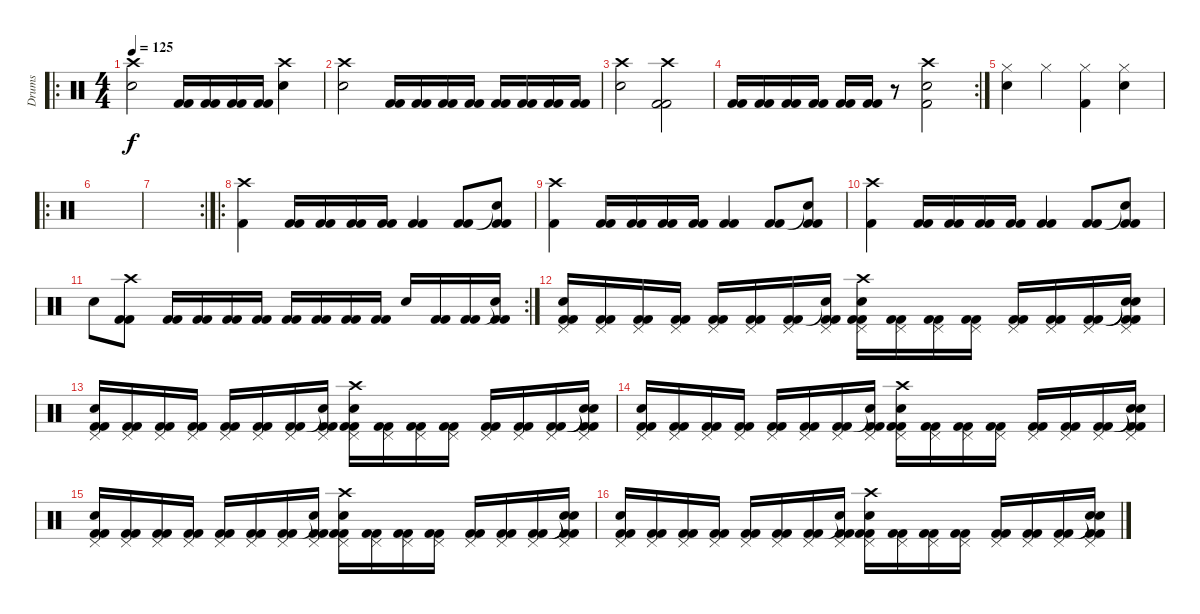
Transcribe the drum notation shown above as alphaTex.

\track ("Drums" "Drums") {instrument percussion}
\staff {score}
\articulation defaults
\ro
\ts (4 4)
\tempo 125
\clef neutral
\ks c
("Crash high (hit)" "Snare (hit) 2").2{dy f} ("Kick (hit) 2" "Kick (hit) 2").16 ("Kick (hit) 2" "Kick (hit) 2").16 ("Kick (hit) 2" "Kick (hit) 2").16 ("Kick (hit) 2" "Kick (hit) 2").16 ("Crash high (hit)" "Snare (hit) 2").4 |
("Crash high (hit)" "Snare (hit) 2").2 ("Kick (hit) 2" "Kick (hit) 2").16 ("Kick (hit) 2" "Kick (hit) 2").16 ("Kick (hit) 2" "Kick (hit) 2").16 ("Kick (hit) 2" "Kick (hit) 2").16 ("Kick (hit) 2" "Kick (hit) 2").16 ("Kick (hit) 2" "Kick (hit) 2").16 ("Kick (hit) 2" "Kick (hit) 2").16 ("Kick (hit) 2" "Kick (hit) 2").16 |
("Crash high (hit)" "Snare (hit) 2").2 ("Crash high (hit)" "Kick (hit) 2" "Kick (hit) 2").2 |
\rc 2
("Kick (hit) 2" "Kick (hit) 2").16 ("Kick (hit) 2" "Kick (hit) 2").16 ("Kick (hit) 2" "Kick (hit) 2").16 ("Kick (hit) 2" "Kick (hit) 2").16 ("Kick (hit) 2" "Kick (hit) 2").16 ("Kick (hit) 2" "Kick (hit) 2").16 r.8 ("Crash high (hit)" "Snare (hit) 2" "Kick (hit) 2").2 |
("Hi-Hat (closed)" "Snare (hit) 2").4 "Hi-Hat (closed)".4 ("Hi-Hat (closed)" "Kick (hit) 2").4 ("Hi-Hat (closed)" "Snare (hit) 2").4 |
\ro
|
\rc 2
|
\ro
("Crash high (hit)" "Kick (hit) 2").4 ("Kick (hit) 2" "Kick (hit) 2").16 ("Kick (hit) 2" "Kick (hit) 2").16 ("Kick (hit) 2" "Kick (hit) 2").16 ("Kick (hit) 2" "Kick (hit) 2").16 ("Kick (hit) 2" "Kick (hit) 2").4 ("Kick (hit) 2" "Kick (hit) 2").8 ("Snare (hit)"{t} "Kick (hit) 2" "Kick (hit) 2").8 |
("Crash high (hit)" "Kick (hit) 2").4 ("Kick (hit) 2" "Kick (hit) 2").16 ("Kick (hit) 2" "Kick (hit) 2").16 ("Kick (hit) 2" "Kick (hit) 2").16 ("Kick (hit) 2" "Kick (hit) 2").16 ("Kick (hit) 2" "Kick (hit) 2").4 ("Kick (hit) 2" "Kick (hit) 2").8 ("Snare (hit)"{t} "Kick (hit) 2" "Kick (hit) 2").8 |
("Crash high (hit)" "Kick (hit) 2").4 ("Kick (hit) 2" "Kick (hit) 2").16 ("Kick (hit) 2" "Kick (hit) 2").16 ("Kick (hit) 2" "Kick (hit) 2").16 ("Kick (hit) 2" "Kick (hit) 2").16 ("Kick (hit) 2" "Kick (hit) 2").4 ("Kick (hit) 2" "Kick (hit) 2").8 ("Snare (hit)"{t} "Kick (hit) 2" "Kick (hit) 2").8 |
\rc 2 "Snare (hit) 2".8
("Crash high (hit)" "Kick (hit) 2" "Kick (hit) 2").8 ("Kick (hit) 2" "Kick (hit) 2").16 ("Kick (hit) 2" "Kick (hit) 2").16 ("Kick (hit) 2" "Kick (hit) 2").16 ("Kick (hit) 2" "Kick (hit) 2").16 ("Kick (hit) 2" "Kick (hit) 2").16 ("Kick (hit) 2" "Kick (hit) 2").16 ("Kick (hit) 2" "Kick (hit) 2").16 ("Kick (hit) 2" "Kick (hit) 2").16 "Snare (hit) 2".16 ("Kick (hit) 2" "Kick (hit) 2").16 ("Kick (hit) 2" "Kick (hit) 2").16 ("Snare (hit)"{t} "Kick (hit) 2" "Kick (hit) 2").16 |
("Pedal Hi-Hat (hit)" "Snare (hit) 2" "Kick (hit) 2" "Kick (hit) 2").16 ("Pedal Hi-Hat (hit)" "Kick (hit) 2" "Kick (hit) 2").16 ("Pedal Hi-Hat (hit)" "Kick (hit) 2" "Kick (hit) 2").16 ("Pedal Hi-Hat (hit)" "Kick (hit) 2" "Kick (hit) 2").16 ("Pedal Hi-Hat (hit)" "Kick (hit) 2" "Kick (hit) 2").16 ("Pedal Hi-Hat (hit)" "Kick (hit) 2" "Kick (hit) 2").16 ("Pedal Hi-Hat (hit)" "Kick (hit) 2" "Kick (hit) 2").16 ("Pedal Hi-Hat (hit)" "Snare (hit)"{t} "Kick (hit) 2" "Kick (hit) 2").16 ("Pedal Hi-Hat (hit)" "Crash high (hit)" "Snare (hit) 2" "Kick (hit) 2" "Kick (hit) 2").16 ("Pedal Hi-Hat (hit)" "Kick (hit) 2" "Kick (hit) 2").16 ("Pedal Hi-Hat (hit)" "Kick (hit) 2" "Kick (hit) 2").16 ("Pedal Hi-Hat (hit)" "Kick (hit) 2" "Kick (hit) 2").16 ("Pedal Hi-Hat (hit)" "Kick (hit) 2" "Kick (hit) 2").16 ("Pedal Hi-Hat (hit)" "Kick (hit) 2" "Kick (hit) 2").16 ("Pedal Hi-Hat (hit)" "Kick (hit) 2" "Kick (hit) 2").16 ("Pedal Hi-Hat (hit)" "Snare (hit)"{t} "Snare (hit)"{t} "Kick (hit) 2" "Kick (hit) 2").16 |
("Pedal Hi-Hat (hit)" "Snare (hit) 2" "Kick (hit) 2" "Kick (hit) 2").16 ("Pedal Hi-Hat (hit)" "Kick (hit) 2" "Kick (hit) 2").16 ("Pedal Hi-Hat (hit)" "Kick (hit) 2" "Kick (hit) 2").16 ("Pedal Hi-Hat (hit)" "Kick (hit) 2" "Kick (hit) 2").16 ("Pedal Hi-Hat (hit)" "Kick (hit) 2" "Kick (hit) 2").16 ("Pedal Hi-Hat (hit)" "Kick (hit) 2" "Kick (hit) 2").16 ("Pedal Hi-Hat (hit)" "Kick (hit) 2" "Kick (hit) 2").16 ("Pedal Hi-Hat (hit)" "Snare (hit)"{t} "Kick (hit) 2" "Kick (hit) 2").16 ("Pedal Hi-Hat (hit)" "Crash high (hit)" "Snare (hit) 2" "Kick (hit) 2" "Kick (hit) 2").16 ("Pedal Hi-Hat (hit)" "Kick (hit) 2" "Kick (hit) 2").16 ("Pedal Hi-Hat (hit)" "Kick (hit) 2" "Kick (hit) 2").16 ("Pedal Hi-Hat (hit)" "Kick (hit) 2" "Kick (hit) 2").16 ("Pedal Hi-Hat (hit)" "Kick (hit) 2" "Kick (hit) 2").16 ("Pedal Hi-Hat (hit)" "Kick (hit) 2" "Kick (hit) 2").16 ("Pedal Hi-Hat (hit)" "Kick (hit) 2" "Kick (hit) 2").16 ("Pedal Hi-Hat (hit)" "Snare (hit)"{t} "Snare (hit)"{t} "Kick (hit) 2" "Kick (hit) 2").16 |
("Pedal Hi-Hat (hit)" "Snare (hit) 2" "Kick (hit) 2" "Kick (hit) 2").16 ("Pedal Hi-Hat (hit)" "Kick (hit) 2" "Kick (hit) 2").16 ("Pedal Hi-Hat (hit)" "Kick (hit) 2" "Kick (hit) 2").16 ("Pedal Hi-Hat (hit)" "Kick (hit) 2" "Kick (hit) 2").16 ("Pedal Hi-Hat (hit)" "Kick (hit) 2" "Kick (hit) 2").16 ("Pedal Hi-Hat (hit)" "Kick (hit) 2" "Kick (hit) 2").16 ("Pedal Hi-Hat (hit)" "Kick (hit) 2" "Kick (hit) 2").16 ("Pedal Hi-Hat (hit)" "Snare (hit)"{t} "Kick (hit) 2" "Kick (hit) 2").16 ("Pedal Hi-Hat (hit)" "Crash high (hit)" "Snare (hit) 2" "Kick (hit) 2" "Kick (hit) 2").16 ("Pedal Hi-Hat (hit)" "Kick (hit) 2" "Kick (hit) 2").16 ("Pedal Hi-Hat (hit)" "Kick (hit) 2" "Kick (hit) 2").16 ("Pedal Hi-Hat (hit)" "Kick (hit) 2" "Kick (hit) 2").16 ("Pedal Hi-Hat (hit)" "Kick (hit) 2" "Kick (hit) 2").16 ("Pedal Hi-Hat (hit)" "Kick (hit) 2" "Kick (hit) 2").16 ("Pedal Hi-Hat (hit)" "Kick (hit) 2" "Kick (hit) 2").16 ("Pedal Hi-Hat (hit)" "Snare (hit)"{t} "Snare (hit)"{t} "Kick (hit) 2" "Kick (hit) 2").16 |
("Pedal Hi-Hat (hit)" "Snare (hit) 2" "Kick (hit) 2" "Kick (hit) 2").16 ("Pedal Hi-Hat (hit)" "Kick (hit) 2" "Kick (hit) 2").16 ("Pedal Hi-Hat (hit)" "Kick (hit) 2" "Kick (hit) 2").16 ("Pedal Hi-Hat (hit)" "Kick (hit) 2" "Kick (hit) 2").16 ("Pedal Hi-Hat (hit)" "Kick (hit) 2" "Kick (hit) 2").16 ("Pedal Hi-Hat (hit)" "Kick (hit) 2" "Kick (hit) 2").16 ("Pedal Hi-Hat (hit)" "Kick (hit) 2" "Kick (hit) 2").16 ("Pedal Hi-Hat (hit)" "Snare (hit)"{t} "Kick (hit) 2" "Kick (hit) 2").16 ("Pedal Hi-Hat (hit)" "Crash high (hit)" "Snare (hit) 2" "Kick (hit) 2" "Kick (hit) 2").16 ("Pedal Hi-Hat (hit)" "Kick (hit) 2" "Kick (hit) 2").16 ("Pedal Hi-Hat (hit)" "Kick (hit) 2" "Kick (hit) 2").16 ("Pedal Hi-Hat (hit)" "Kick (hit) 2" "Kick (hit) 2").16 ("Pedal Hi-Hat (hit)" "Kick (hit) 2" "Kick (hit) 2").16 ("Pedal Hi-Hat (hit)" "Kick (hit) 2" "Kick (hit) 2").16 ("Pedal Hi-Hat (hit)" "Kick (hit) 2" "Kick (hit) 2").16 ("Pedal Hi-Hat (hit)" "Snare (hit)"{t} "Snare (hit)"{t} "Kick (hit) 2" "Kick (hit) 2").16 |
("Pedal Hi-Hat (hit)" "Snare (hit) 2" "Kick (hit) 2" "Kick (hit) 2").16 ("Pedal Hi-Hat (hit)" "Kick (hit) 2" "Kick (hit) 2").16 ("Pedal Hi-Hat (hit)" "Kick (hit) 2" "Kick (hit) 2").16 ("Pedal Hi-Hat (hit)" "Kick (hit) 2" "Kick (hit) 2").16 ("Pedal Hi-Hat (hit)" "Kick (hit) 2" "Kick (hit) 2").16 ("Pedal Hi-Hat (hit)" "Kick (hit) 2" "Kick (hit) 2").16 ("Pedal Hi-Hat (hit)" "Kick (hit) 2" "Kick (hit) 2").16 ("Pedal Hi-Hat (hit)" "Snare (hit)"{t} "Kick (hit) 2" "Kick (hit) 2").16 ("Pedal Hi-Hat (hit)" "Crash high (hit)" "Snare (hit) 2" "Kick (hit) 2" "Kick (hit) 2").16 ("Pedal Hi-Hat (hit)" "Kick (hit) 2" "Kick (hit) 2").16 ("Pedal Hi-Hat (hit)" "Kick (hit) 2" "Kick (hit) 2").16 ("Pedal Hi-Hat (hit)" "Kick (hit) 2" "Kick (hit) 2").16 ("Pedal Hi-Hat (hit)" "Kick (hit) 2" "Kick (hit) 2").16 ("Pedal Hi-Hat (hit)" "Kick (hit) 2" "Kick (hit) 2").16 ("Pedal Hi-Hat (hit)" "Kick (hit) 2" "Kick (hit) 2").16 ("Pedal Hi-Hat (hit)" "Snare (hit)"{t} "Snare (hit)"{t} "Kick (hit) 2" "Kick (hit) 2").16
